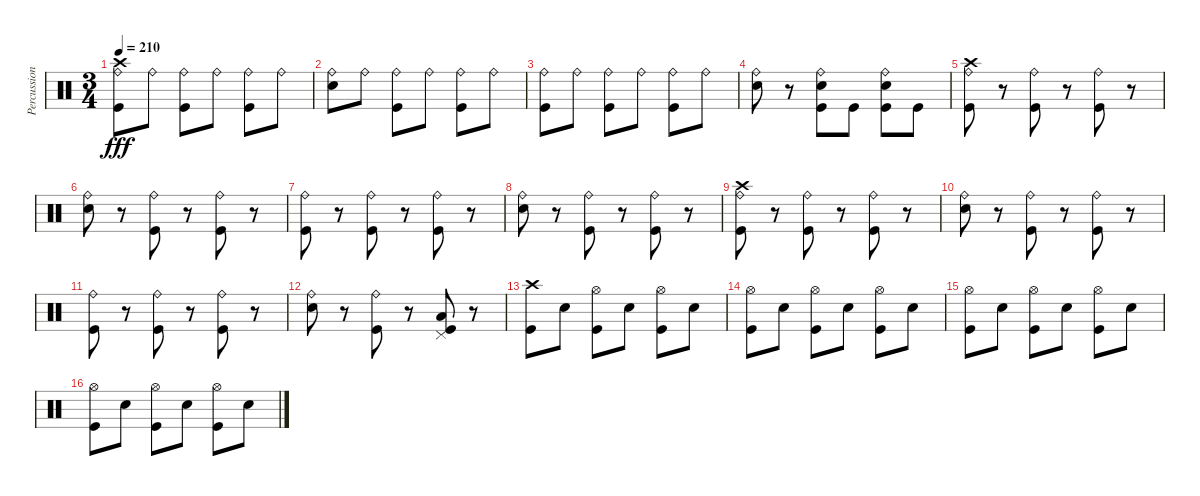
\track ("Percussion" "Percussion") {instrument percussion}
\staff {score}
\articulation defaults
\ts (3 4)
\tempo 210
\clef neutral
\ks c
("Crash high (hit)" "Ride (bell)" "Kick (hit)").8{dy fff} "Ride (bell)".8 ("Ride (bell)" "Kick (hit)").8 "Ride (bell)".8 ("Ride (bell)" "Kick (hit)").8 "Ride (bell)".8 |
("Ride (bell)" "Electric Snare (hit)").8 "Ride (bell)".8 ("Ride (bell)" "Kick (hit)").8 "Ride (bell)".8 ("Ride (bell)" "Kick (hit)").8 "Ride (bell)".8 |
("Ride (bell)" "Kick (hit)").8 "Ride (bell)".8 ("Ride (bell)" "Kick (hit)").8 "Ride (bell)".8 ("Ride (bell)" "Kick (hit)").8 "Ride (bell)".8 |
("Ride (bell)" "Electric Snare (hit)").8 r.8 ("Ride (bell)" "Electric Snare (hit)" "Kick (hit)").8 "Kick (hit)".8 ("Ride (bell)" "Electric Snare (hit)" "Kick (hit)").8 "Kick (hit)".8 |
("Crash high (hit)" "Ride (bell)" "Kick (hit)").8 r.8 ("Ride (bell)" "Kick (hit)").8 r.8 ("Ride (bell)" "Kick (hit)").8 r.8 |
("Ride (bell)" "Electric Snare (hit)").8 r.8 ("Ride (bell)" "Kick (hit)").8 r.8 ("Ride (bell)" "Kick (hit)").8 r.8 |
("Ride (bell)" "Kick (hit)").8 r.8 ("Ride (bell)" "Kick (hit)").8 r.8 ("Ride (bell)" "Kick (hit)").8 r.8 |
("Ride (bell)" "Electric Snare (hit)").8 r.8 ("Ride (bell)" "Kick (hit)").8 r.8 ("Ride (bell)" "Kick (hit)").8 r.8 |
("Crash high (hit)" "Ride (bell)" "Kick (hit)").8 r.8 ("Ride (bell)" "Kick (hit)").8 r.8 ("Ride (bell)" "Kick (hit)").8 r.8 |
("Ride (bell)" "Electric Snare (hit)").8 r.8 ("Ride (bell)" "Kick (hit)").8 r.8 ("Ride (bell)" "Kick (hit)").8 r.8 |
("Ride (bell)" "Kick (hit)").8 r.8 ("Ride (bell)" "Kick (hit)").8 r.8 ("Ride (bell)" "Kick (hit)").8 r.8 |
("Ride (bell)" "Electric Snare (hit)").8 r.8 ("Ride (bell)" "Kick (hit)").8 r.8 ("Pedal Hi-Hat (hit)" "Low Floor Tom (hit)" "Kick (hit)").8 r.8 |
("Crash high (hit)" "Kick (hit)").8 "Electric Snare (hit)".8 ("Hi-Hat (open)" "Kick (hit)").8 "Electric Snare (hit)".8 ("Hi-Hat (open)" "Kick (hit)").8 "Electric Snare (hit)".8 |
("Hi-Hat (open)" "Kick (hit)").8 "Electric Snare (hit)".8 ("Hi-Hat (open)" "Kick (hit)").8 "Electric Snare (hit)".8 ("Hi-Hat (open)" "Kick (hit)").8 "Electric Snare (hit)".8 |
("Hi-Hat (open)" "Kick (hit)").8 "Electric Snare (hit)".8 ("Hi-Hat (open)" "Kick (hit)").8 "Electric Snare (hit)".8 ("Hi-Hat (open)" "Kick (hit)").8 "Electric Snare (hit)".8 |
("Hi-Hat (open)" "Kick (hit)").8 "Electric Snare (hit)".8 ("Hi-Hat (open)" "Kick (hit)").8 "Electric Snare (hit)".8 ("Hi-Hat (open)" "Kick (hit)").8 "Electric Snare (hit)".8
